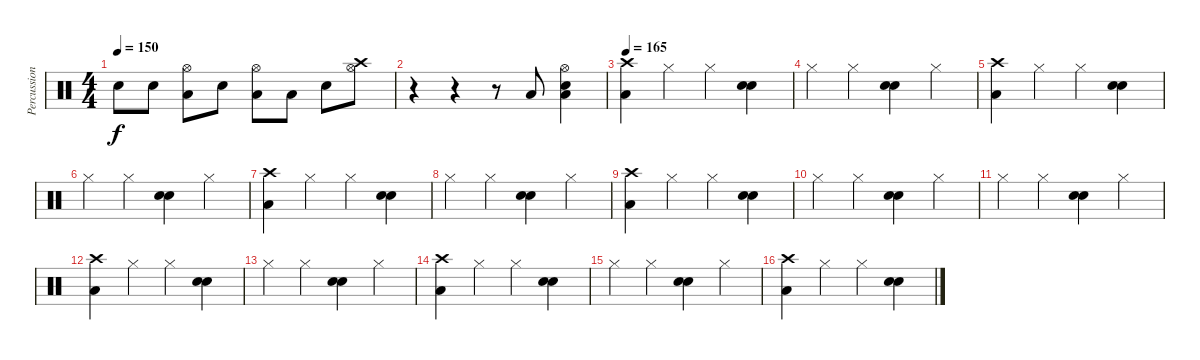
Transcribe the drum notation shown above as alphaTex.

\track ("Percussion" "Percussion") {instrument percussion}
\staff {score}
\articulation defaults
\ts (4 4)
\tempo 150
\clef neutral
\ks c "Electric Snare (hit)".8{dy f} "Electric Snare (hit)".8
("Low Tom (hit)" "Hi-Hat (open)").8 "Electric Snare (hit)".8 ("Hi-Hat (open)" "Low Tom (hit)").8 "Low Tom (hit)".8 "Electric Snare (hit)".8 ("Hi-Hat (open)" "Crash high (hit)").8 |
r.4 r.4 r.8 "Low Tom (hit)".8 ("Low Tom (hit)" "Electric Snare (hit)" "Hi-Hat (open)").4 |
\tempo 165
("Crash high (hit)" "Low Tom (hit)").4 "Hi-Hat (closed)".4 "Hi-Hat (closed)".4 ("Electric Snare (hit)" "Electric Snare (hit)").4 |
"Hi-Hat (closed)".4 "Hi-Hat (closed)".4 ("Electric Snare (hit)" "Electric Snare (hit)").4 "Hi-Hat (closed)".4 |
("Crash high (hit)" "Low Tom (hit)").4 "Hi-Hat (closed)".4 "Hi-Hat (closed)".4 ("Electric Snare (hit)" "Electric Snare (hit)").4 |
"Hi-Hat (closed)".4 "Hi-Hat (closed)".4 ("Electric Snare (hit)" "Electric Snare (hit)").4 "Hi-Hat (closed)".4 |
("Crash high (hit)" "Low Tom (hit)").4 "Hi-Hat (closed)".4 "Hi-Hat (closed)".4 ("Electric Snare (hit)" "Electric Snare (hit)").4 |
"Hi-Hat (closed)".4 "Hi-Hat (closed)".4 ("Electric Snare (hit)" "Electric Snare (hit)").4 "Hi-Hat (closed)".4 |
("Crash high (hit)" "Low Tom (hit)").4 "Hi-Hat (closed)".4 "Hi-Hat (closed)".4 ("Electric Snare (hit)" "Electric Snare (hit)").4 |
"Hi-Hat (closed)".4 "Hi-Hat (closed)".4 ("Electric Snare (hit)" "Electric Snare (hit)").4 "Hi-Hat (closed)".4 |
"Hi-Hat (closed)".4 "Hi-Hat (closed)".4 ("Electric Snare (hit)" "Electric Snare (hit)").4 "Hi-Hat (closed)".4 |
("Crash high (hit)" "Low Tom (hit)").4 "Hi-Hat (closed)".4 "Hi-Hat (closed)".4 ("Electric Snare (hit)" "Electric Snare (hit)").4 |
"Hi-Hat (closed)".4 "Hi-Hat (closed)".4 ("Electric Snare (hit)" "Electric Snare (hit)").4 "Hi-Hat (closed)".4 |
("Crash high (hit)" "Low Tom (hit)").4 "Hi-Hat (closed)".4 "Hi-Hat (closed)".4 ("Electric Snare (hit)" "Electric Snare (hit)").4 |
"Hi-Hat (closed)".4 "Hi-Hat (closed)".4 ("Electric Snare (hit)" "Electric Snare (hit)").4 "Hi-Hat (closed)".4 |
("Crash high (hit)" "Low Tom (hit)").4 "Hi-Hat (closed)".4 "Hi-Hat (closed)".4 ("Electric Snare (hit)" "Electric Snare (hit)").4
